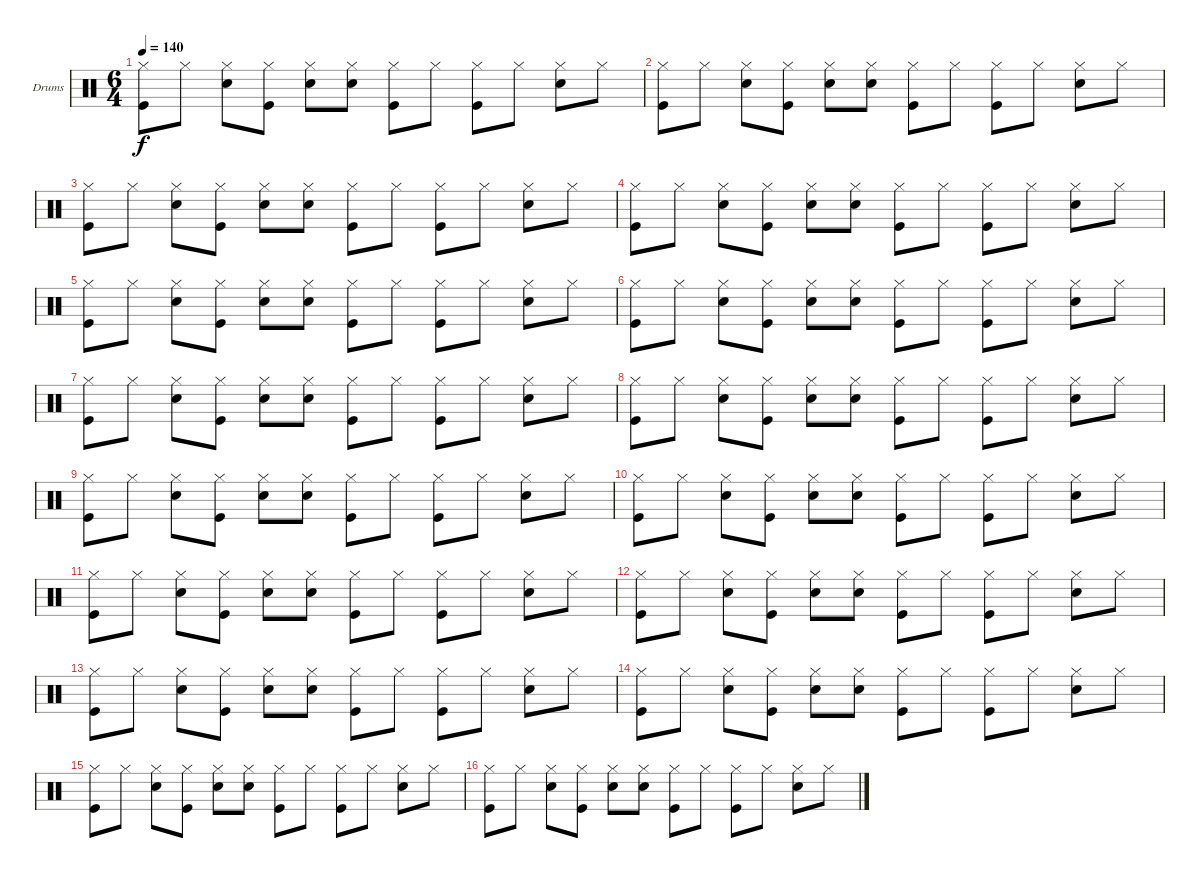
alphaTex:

\bracketExtendMode groupsimilarinstruments
\firstSystemTrackNameOrientation horizontal
\otherSystemsTrackNameOrientation horizontal
\track ("Peter Ulrich (Drums)" "Drums") {instrument percussion}
\staff {score}
\articulation defaults
\ts (6 4)
\tempo 140
\clef neutral
\ks c
("Hi-Hat (closed)" "Kick (hit)").8{dy f} "Hi-Hat (closed)".8 ("Hi-Hat (closed)" "Snare (hit) 2").8 ("Hi-Hat (closed)" "Kick (hit)").8 ("Hi-Hat (closed)" "Snare (hit) 2").8 ("Hi-Hat (closed)" "Snare (hit) 2").8 ("Hi-Hat (closed)" "Kick (hit)").8 "Hi-Hat (closed)".8 ("Hi-Hat (closed)" "Kick (hit)").8 "Hi-Hat (closed)".8 ("Hi-Hat (closed)" "Snare (hit) 2").8 "Hi-Hat (closed)".8 |
("Hi-Hat (closed)" "Kick (hit)").8 "Hi-Hat (closed)".8 ("Hi-Hat (closed)" "Snare (hit) 2").8 ("Hi-Hat (closed)" "Kick (hit)").8 ("Hi-Hat (closed)" "Snare (hit) 2").8 ("Hi-Hat (closed)" "Snare (hit) 2").8 ("Hi-Hat (closed)" "Kick (hit)").8 "Hi-Hat (closed)".8 ("Hi-Hat (closed)" "Kick (hit)").8 "Hi-Hat (closed)".8 ("Hi-Hat (closed)" "Snare (hit) 2").8 "Hi-Hat (closed)".8 |
("Hi-Hat (closed)" "Kick (hit)").8 "Hi-Hat (closed)".8 ("Hi-Hat (closed)" "Snare (hit) 2").8 ("Hi-Hat (closed)" "Kick (hit)").8 ("Hi-Hat (closed)" "Snare (hit) 2").8 ("Hi-Hat (closed)" "Snare (hit) 2").8 ("Hi-Hat (closed)" "Kick (hit)").8 "Hi-Hat (closed)".8 ("Hi-Hat (closed)" "Kick (hit)").8 "Hi-Hat (closed)".8 ("Hi-Hat (closed)" "Snare (hit) 2").8 "Hi-Hat (closed)".8 |
("Hi-Hat (closed)" "Kick (hit)").8 "Hi-Hat (closed)".8 ("Hi-Hat (closed)" "Snare (hit) 2").8 ("Hi-Hat (closed)" "Kick (hit)").8 ("Hi-Hat (closed)" "Snare (hit) 2").8 ("Hi-Hat (closed)" "Snare (hit) 2").8 ("Hi-Hat (closed)" "Kick (hit)").8 "Hi-Hat (closed)".8 ("Hi-Hat (closed)" "Kick (hit)").8 "Hi-Hat (closed)".8 ("Hi-Hat (closed)" "Snare (hit) 2").8 "Hi-Hat (closed)".8 |
("Hi-Hat (closed)" "Kick (hit)").8 "Hi-Hat (closed)".8 ("Hi-Hat (closed)" "Snare (hit) 2").8 ("Hi-Hat (closed)" "Kick (hit)").8 ("Hi-Hat (closed)" "Snare (hit) 2").8 ("Hi-Hat (closed)" "Snare (hit) 2").8 ("Hi-Hat (closed)" "Kick (hit)").8 "Hi-Hat (closed)".8 ("Hi-Hat (closed)" "Kick (hit)").8 "Hi-Hat (closed)".8 ("Hi-Hat (closed)" "Snare (hit) 2").8 "Hi-Hat (closed)".8 |
("Hi-Hat (closed)" "Kick (hit)").8 "Hi-Hat (closed)".8 ("Hi-Hat (closed)" "Snare (hit) 2").8 ("Hi-Hat (closed)" "Kick (hit)").8 ("Hi-Hat (closed)" "Snare (hit) 2").8 ("Hi-Hat (closed)" "Snare (hit) 2").8 ("Hi-Hat (closed)" "Kick (hit)").8 "Hi-Hat (closed)".8 ("Hi-Hat (closed)" "Kick (hit)").8 "Hi-Hat (closed)".8 ("Hi-Hat (closed)" "Snare (hit) 2").8 "Hi-Hat (closed)".8 |
("Hi-Hat (closed)" "Kick (hit)").8 "Hi-Hat (closed)".8 ("Hi-Hat (closed)" "Snare (hit) 2").8 ("Hi-Hat (closed)" "Kick (hit)").8 ("Hi-Hat (closed)" "Snare (hit) 2").8 ("Hi-Hat (closed)" "Snare (hit) 2").8 ("Hi-Hat (closed)" "Kick (hit)").8 "Hi-Hat (closed)".8 ("Hi-Hat (closed)" "Kick (hit)").8 "Hi-Hat (closed)".8 ("Hi-Hat (closed)" "Snare (hit) 2").8 "Hi-Hat (closed)".8 |
("Hi-Hat (closed)" "Kick (hit)").8 "Hi-Hat (closed)".8 ("Hi-Hat (closed)" "Snare (hit) 2").8 ("Hi-Hat (closed)" "Kick (hit)").8 ("Hi-Hat (closed)" "Snare (hit) 2").8 ("Hi-Hat (closed)" "Snare (hit) 2").8 ("Hi-Hat (closed)" "Kick (hit)").8 "Hi-Hat (closed)".8 ("Hi-Hat (closed)" "Kick (hit)").8 "Hi-Hat (closed)".8 ("Hi-Hat (closed)" "Snare (hit) 2").8 "Hi-Hat (closed)".8 |
("Hi-Hat (closed)" "Kick (hit)").8 "Hi-Hat (closed)".8 ("Hi-Hat (closed)" "Snare (hit) 2").8 ("Hi-Hat (closed)" "Kick (hit)").8 ("Hi-Hat (closed)" "Snare (hit) 2").8 ("Hi-Hat (closed)" "Snare (hit) 2").8 ("Hi-Hat (closed)" "Kick (hit)").8 "Hi-Hat (closed)".8 ("Hi-Hat (closed)" "Kick (hit)").8 "Hi-Hat (closed)".8 ("Hi-Hat (closed)" "Snare (hit) 2").8 "Hi-Hat (closed)".8 |
("Hi-Hat (closed)" "Kick (hit)").8 "Hi-Hat (closed)".8 ("Hi-Hat (closed)" "Snare (hit) 2").8 ("Hi-Hat (closed)" "Kick (hit)").8 ("Hi-Hat (closed)" "Snare (hit) 2").8 ("Hi-Hat (closed)" "Snare (hit) 2").8 ("Hi-Hat (closed)" "Kick (hit)").8 "Hi-Hat (closed)".8 ("Hi-Hat (closed)" "Kick (hit)").8 "Hi-Hat (closed)".8 ("Hi-Hat (closed)" "Snare (hit) 2").8 "Hi-Hat (closed)".8 |
("Hi-Hat (closed)" "Kick (hit)").8 "Hi-Hat (closed)".8 ("Hi-Hat (closed)" "Snare (hit) 2").8 ("Hi-Hat (closed)" "Kick (hit)").8 ("Hi-Hat (closed)" "Snare (hit) 2").8 ("Hi-Hat (closed)" "Snare (hit) 2").8 ("Hi-Hat (closed)" "Kick (hit)").8 "Hi-Hat (closed)".8 ("Hi-Hat (closed)" "Kick (hit)").8 "Hi-Hat (closed)".8 ("Hi-Hat (closed)" "Snare (hit) 2").8 "Hi-Hat (closed)".8 |
("Hi-Hat (closed)" "Kick (hit)").8 "Hi-Hat (closed)".8 ("Hi-Hat (closed)" "Snare (hit) 2").8 ("Hi-Hat (closed)" "Kick (hit)").8 ("Hi-Hat (closed)" "Snare (hit) 2").8 ("Hi-Hat (closed)" "Snare (hit) 2").8 ("Hi-Hat (closed)" "Kick (hit)").8 "Hi-Hat (closed)".8 ("Hi-Hat (closed)" "Kick (hit)").8 "Hi-Hat (closed)".8 ("Hi-Hat (closed)" "Snare (hit) 2").8 "Hi-Hat (closed)".8 |
("Hi-Hat (closed)" "Kick (hit)").8 "Hi-Hat (closed)".8 ("Hi-Hat (closed)" "Snare (hit) 2").8 ("Hi-Hat (closed)" "Kick (hit)").8 ("Hi-Hat (closed)" "Snare (hit) 2").8 ("Hi-Hat (closed)" "Snare (hit) 2").8 ("Hi-Hat (closed)" "Kick (hit)").8 "Hi-Hat (closed)".8 ("Hi-Hat (closed)" "Kick (hit)").8 "Hi-Hat (closed)".8 ("Hi-Hat (closed)" "Snare (hit) 2").8 "Hi-Hat (closed)".8 |
("Hi-Hat (closed)" "Kick (hit)").8 "Hi-Hat (closed)".8 ("Hi-Hat (closed)" "Snare (hit) 2").8 ("Hi-Hat (closed)" "Kick (hit)").8 ("Hi-Hat (closed)" "Snare (hit) 2").8 ("Hi-Hat (closed)" "Snare (hit) 2").8 ("Hi-Hat (closed)" "Kick (hit)").8 "Hi-Hat (closed)".8 ("Hi-Hat (closed)" "Kick (hit)").8 "Hi-Hat (closed)".8 ("Hi-Hat (closed)" "Snare (hit) 2").8 "Hi-Hat (closed)".8 |
("Hi-Hat (closed)" "Kick (hit)").8 "Hi-Hat (closed)".8 ("Hi-Hat (closed)" "Snare (hit) 2").8 ("Hi-Hat (closed)" "Kick (hit)").8 ("Hi-Hat (closed)" "Snare (hit) 2").8 ("Hi-Hat (closed)" "Snare (hit) 2").8 ("Hi-Hat (closed)" "Kick (hit)").8 "Hi-Hat (closed)".8 ("Hi-Hat (closed)" "Kick (hit)").8 "Hi-Hat (closed)".8 ("Hi-Hat (closed)" "Snare (hit) 2").8 "Hi-Hat (closed)".8 |
("Hi-Hat (closed)" "Kick (hit)").8 "Hi-Hat (closed)".8 ("Hi-Hat (closed)" "Snare (hit) 2").8 ("Hi-Hat (closed)" "Kick (hit)").8 ("Hi-Hat (closed)" "Snare (hit) 2").8 ("Hi-Hat (closed)" "Snare (hit) 2").8 ("Hi-Hat (closed)" "Kick (hit)").8 "Hi-Hat (closed)".8 ("Hi-Hat (closed)" "Kick (hit)").8 "Hi-Hat (closed)".8 ("Hi-Hat (closed)" "Snare (hit) 2").8 "Hi-Hat (closed)".8
